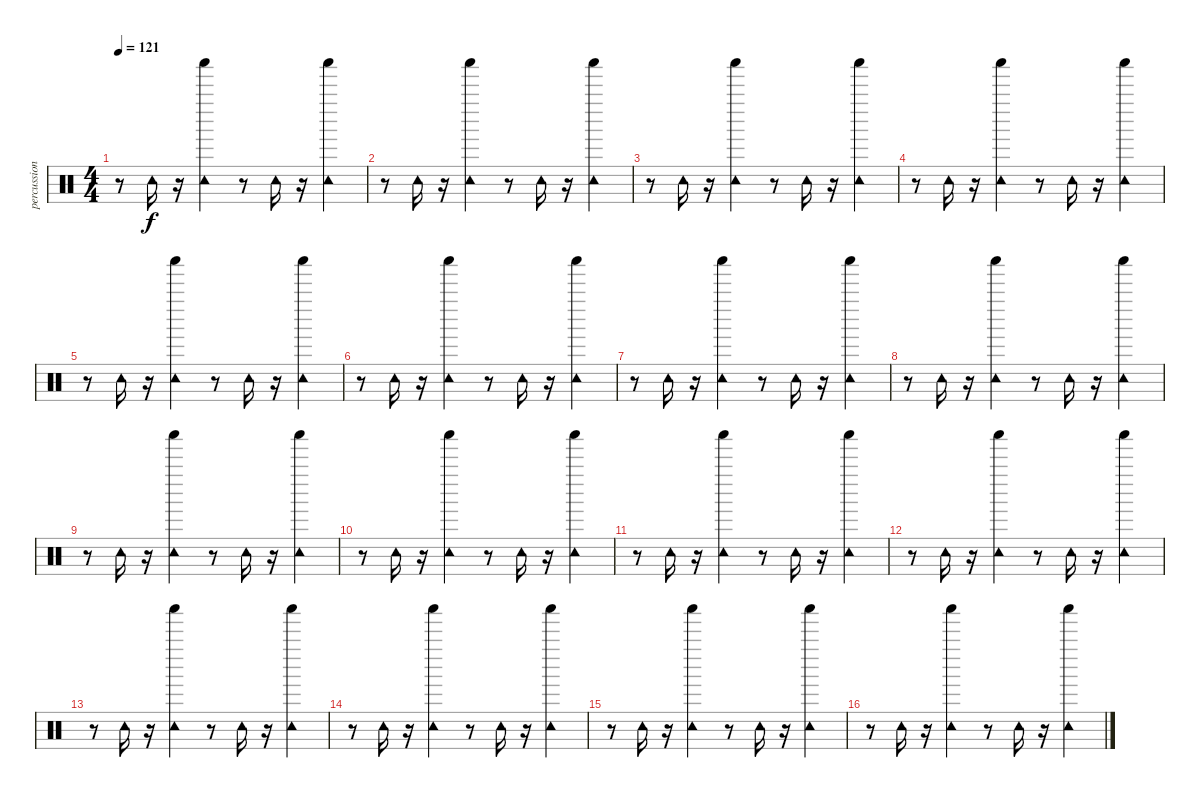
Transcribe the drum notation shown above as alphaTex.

\track ("percussion" "percussion") {instrument percussion}
\staff {score}
\articulation defaults
\ts (4 4)
\tempo 121
\clef neutral
\ks c
r.8{dy f} "Tambourine (hit)".16 r.16 ("Tambourine (hit)" "Shaker (hit)").4 r.8 "Tambourine (hit)".16 r.16 ("Tambourine (hit)" "Shaker (hit)").4 |
r.8 "Tambourine (hit)".16 r.16 ("Tambourine (hit)" "Shaker (hit)").4 r.8 "Tambourine (hit)".16 r.16 ("Tambourine (hit)" "Shaker (hit)").4 |
r.8 "Tambourine (hit)".16 r.16 ("Tambourine (hit)" "Shaker (hit)").4 r.8 "Tambourine (hit)".16 r.16 ("Tambourine (hit)" "Shaker (hit)").4 |
r.8 "Tambourine (hit)".16 r.16 ("Tambourine (hit)" "Shaker (hit)").4 r.8 "Tambourine (hit)".16 r.16 ("Tambourine (hit)" "Shaker (hit)").4 |
r.8 "Tambourine (hit)".16 r.16 ("Tambourine (hit)" "Shaker (hit)").4 r.8 "Tambourine (hit)".16 r.16 ("Tambourine (hit)" "Shaker (hit)").4 |
r.8 "Tambourine (hit)".16 r.16 ("Tambourine (hit)" "Shaker (hit)").4 r.8 "Tambourine (hit)".16 r.16 ("Tambourine (hit)" "Shaker (hit)").4 |
r.8 "Tambourine (hit)".16 r.16 ("Tambourine (hit)" "Shaker (hit)").4 r.8 "Tambourine (hit)".16 r.16 ("Tambourine (hit)" "Shaker (hit)").4 |
r.8 "Tambourine (hit)".16 r.16 ("Tambourine (hit)" "Shaker (hit)").4 r.8 "Tambourine (hit)".16 r.16 ("Tambourine (hit)" "Shaker (hit)").4 |
r.8 "Tambourine (hit)".16 r.16 ("Tambourine (hit)" "Shaker (hit)").4 r.8 "Tambourine (hit)".16 r.16 ("Tambourine (hit)" "Shaker (hit)").4 |
r.8 "Tambourine (hit)".16 r.16 ("Tambourine (hit)" "Shaker (hit)").4 r.8 "Tambourine (hit)".16 r.16 ("Tambourine (hit)" "Shaker (hit)").4 |
r.8 "Tambourine (hit)".16 r.16 ("Tambourine (hit)" "Shaker (hit)").4 r.8 "Tambourine (hit)".16 r.16 ("Tambourine (hit)" "Shaker (hit)").4 |
r.8 "Tambourine (hit)".16 r.16 ("Tambourine (hit)" "Shaker (hit)").4 r.8 "Tambourine (hit)".16 r.16 ("Tambourine (hit)" "Shaker (hit)").4 |
r.8 "Tambourine (hit)".16 r.16 ("Tambourine (hit)" "Shaker (hit)").4 r.8 "Tambourine (hit)".16 r.16 ("Tambourine (hit)" "Shaker (hit)").4 |
r.8 "Tambourine (hit)".16 r.16 ("Tambourine (hit)" "Shaker (hit)").4 r.8 "Tambourine (hit)".16 r.16 ("Tambourine (hit)" "Shaker (hit)").4 |
r.8 "Tambourine (hit)".16 r.16 ("Tambourine (hit)" "Shaker (hit)").4 r.8 "Tambourine (hit)".16 r.16 ("Tambourine (hit)" "Shaker (hit)").4 |
r.8 "Tambourine (hit)".16 r.16 ("Tambourine (hit)" "Shaker (hit)").4 r.8 "Tambourine (hit)".16 r.16 ("Tambourine (hit)" "Shaker (hit)").4
